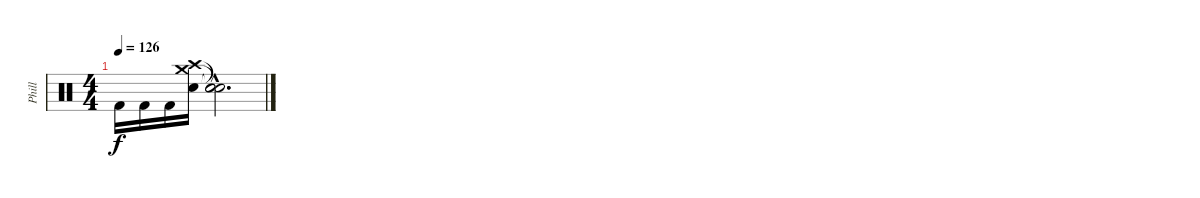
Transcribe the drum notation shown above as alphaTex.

\track ("Phill" "Phill") {instrument percussion}
\staff {score}
\articulation defaults
\ts (4 4)
\tempo 126
\clef neutral
\ks c "Kick (hit) 2".16{dy f} "Kick (hit) 2".16 "Kick (hit) 2".16
("Crash high (hit)" "Electric Snare (hit)" "Crash medium (hit)").16 ("Snare (hit)"{hac t} "Snare (hit)"{hac t} "Snare (hit)"{hac t}).2{d}
